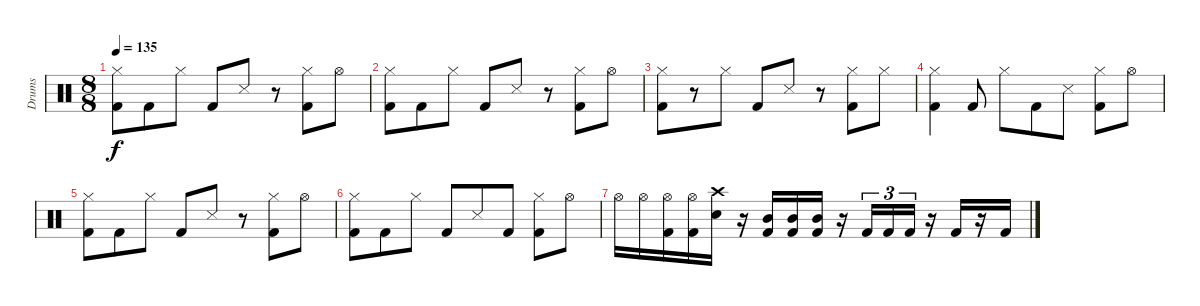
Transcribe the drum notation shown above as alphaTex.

\track ("Drums" "Drums") {instrument percussion}
\staff {score}
\articulation defaults
\ts (8 8)
\tempo 135
\clef neutral
\ks c
("Hi-Hat (closed)" "Kick (hit) 2").8{dy f} "Kick (hit) 2".8 "Hi-Hat (closed)".8 "Kick (hit) 2".8 "Snare (side stick) 3".8 r.8 ("Hi-Hat (closed)" "Kick (hit) 2").8 "Hi-Hat (open)".8 |
("Hi-Hat (closed)" "Kick (hit) 2").8 "Kick (hit) 2".8 "Hi-Hat (closed)".8 "Kick (hit) 2".8 "Snare (side stick) 3".8 r.8 ("Hi-Hat (closed)" "Kick (hit) 2").8 "Hi-Hat (open)".8 |
("Hi-Hat (closed)" "Kick (hit) 2").8 r.8 "Hi-Hat (closed)".8 "Kick (hit) 2".8 "Snare (side stick) 3".8 r.8 ("Hi-Hat (closed)" "Kick (hit) 2").8 "Hi-Hat (closed)".8 |
("Hi-Hat (closed)" "Kick (hit) 2").4 "Kick (hit) 2".8 "Hi-Hat (closed)".8 "Kick (hit) 2".8 "Snare (side stick) 3".8 ("Hi-Hat (closed)" "Kick (hit) 2").8 "Hi-Hat (open)".8 |
("Hi-Hat (closed)" "Kick (hit) 2").8 "Kick (hit) 2".8 "Hi-Hat (closed)".8 "Kick (hit) 2".8 "Snare (side stick) 3".8 r.8 ("Hi-Hat (closed)" "Kick (hit) 2").8 "Hi-Hat (open)".8 |
("Hi-Hat (closed)" "Kick (hit) 2").8 "Kick (hit) 2".8 "Hi-Hat (closed)".8 "Kick (hit) 2".8 "Snare (side stick) 3".8 "Kick (hit) 2".8 ("Hi-Hat (closed)" "Kick (hit) 2").8 "Hi-Hat (open)".8 |
"Hi-Hat (open)".16 "Hi-Hat (open)".16 ("Hi-Hat (open)" "Kick (hit) 2").16 ("Hi-Hat (open)" "Kick (hit) 2").16 ("Crash high (hit)" "Snare (hit) 2").16 r.16 ("Mid Tom (hit)" "Kick (hit) 2").16 ("Mid Tom (hit)" "Kick (hit) 2").16 ("Mid Tom (hit)" "Kick (hit) 2").16 r.16 "Kick (hit) 2".16{tu (3 2)} "Kick (hit) 2".16{tu (3 2)} "Kick (hit) 2".16{tu (3 2)} r.16 "Kick (hit) 2".16 r.16 "Kick (hit) 2".16
